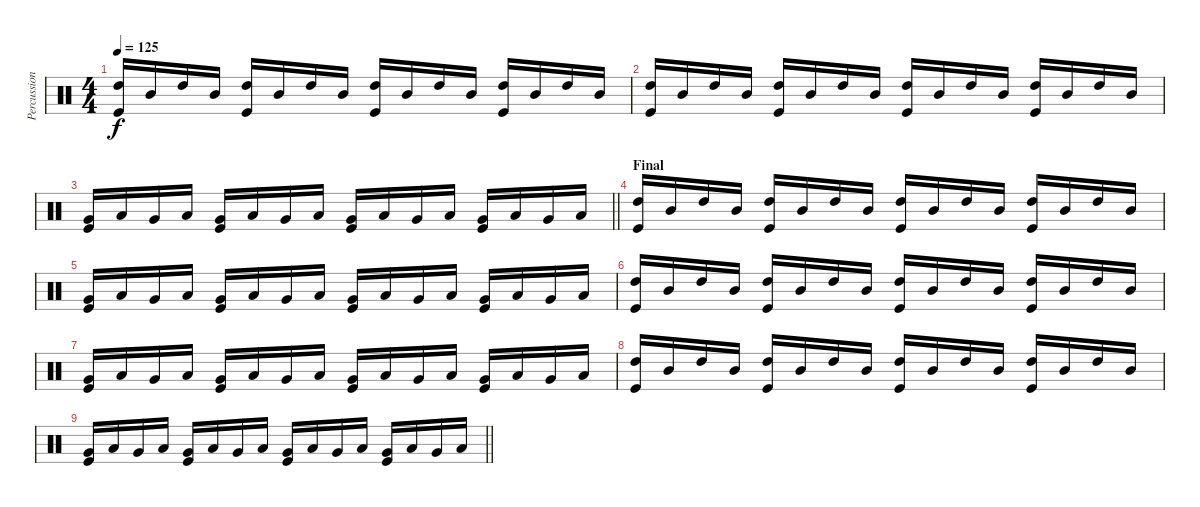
\track ("Percussions" "Percussion") {instrument percussion}
\staff {score}
\articulation defaults
\ts (4 4)
\tempo 125
\clef neutral
\ks c
("High Tom (hit)" "Kick (hit)").16{dy f} "Mid Tom (hit)".16 "High Tom (hit)".16 "Mid Tom (hit)".16 ("High Tom (hit)" "Kick (hit)").16 "Mid Tom (hit)".16 "High Tom (hit)".16 "Mid Tom (hit)".16 ("High Tom (hit)" "Kick (hit)").16 "Mid Tom (hit)".16 "High Tom (hit)".16 "Mid Tom (hit)".16 ("High Tom (hit)" "Kick (hit)").16 "Mid Tom (hit)".16 "High Tom (hit)".16 "Mid Tom (hit)".16 |
("High Tom (hit)" "Kick (hit)").16 "Mid Tom (hit)".16 "High Tom (hit)".16 "Mid Tom (hit)".16 ("High Tom (hit)" "Kick (hit)").16 "Mid Tom (hit)".16 "High Tom (hit)".16 "Mid Tom (hit)".16 ("High Tom (hit)" "Kick (hit)").16 "Mid Tom (hit)".16 "High Tom (hit)".16 "Mid Tom (hit)".16 ("High Tom (hit)" "Kick (hit)").16 "Mid Tom (hit)".16 "High Tom (hit)".16 "Mid Tom (hit)".16 |
\barLineRight lightlight
("Very Low Tom (hit)" "Kick (hit)").16 "Low Tom (hit)".16 "Very Low Tom (hit)".16 "Low Tom (hit)".16 ("Very Low Tom (hit)" "Kick (hit)").16 "Low Tom (hit)".16 "Very Low Tom (hit)".16 "Low Tom (hit)".16 ("Very Low Tom (hit)" "Kick (hit)").16 "Low Tom (hit)".16 "Very Low Tom (hit)".16 "Low Tom (hit)".16 ("Very Low Tom (hit)" "Kick (hit)").16 "Low Tom (hit)".16 "Very Low Tom (hit)".16 "Low Tom (hit)".16 |
\section ("" "Final")
("High Tom (hit)" "Kick (hit)").16 "Mid Tom (hit)".16 "High Tom (hit)".16 "Mid Tom (hit)".16 ("High Tom (hit)" "Kick (hit)").16 "Mid Tom (hit)".16 "High Tom (hit)".16 "Mid Tom (hit)".16 ("High Tom (hit)" "Kick (hit)").16 "Mid Tom (hit)".16 "High Tom (hit)".16 "Mid Tom (hit)".16 ("High Tom (hit)" "Kick (hit)").16 "Mid Tom (hit)".16 "High Tom (hit)".16 "Mid Tom (hit)".16 |
("Very Low Tom (hit)" "Kick (hit)").16 "Low Tom (hit)".16 "Very Low Tom (hit)".16 "Low Tom (hit)".16 ("Very Low Tom (hit)" "Kick (hit)").16 "Low Tom (hit)".16 "Very Low Tom (hit)".16 "Low Tom (hit)".16 ("Very Low Tom (hit)" "Kick (hit)").16 "Low Tom (hit)".16 "Very Low Tom (hit)".16 "Low Tom (hit)".16 ("Very Low Tom (hit)" "Kick (hit)").16 "Low Tom (hit)".16 "Very Low Tom (hit)".16 "Low Tom (hit)".16 |
("High Tom (hit)" "Kick (hit)").16 "Mid Tom (hit)".16 "High Tom (hit)".16 "Mid Tom (hit)".16 ("High Tom (hit)" "Kick (hit)").16 "Mid Tom (hit)".16 "High Tom (hit)".16 "Mid Tom (hit)".16 ("High Tom (hit)" "Kick (hit)").16 "Mid Tom (hit)".16 "High Tom (hit)".16 "Mid Tom (hit)".16 ("High Tom (hit)" "Kick (hit)").16 "Mid Tom (hit)".16 "High Tom (hit)".16 "Mid Tom (hit)".16 |
("Very Low Tom (hit)" "Kick (hit)").16 "Low Tom (hit)".16 "Very Low Tom (hit)".16 "Low Tom (hit)".16 ("Very Low Tom (hit)" "Kick (hit)").16 "Low Tom (hit)".16 "Very Low Tom (hit)".16 "Low Tom (hit)".16 ("Very Low Tom (hit)" "Kick (hit)").16 "Low Tom (hit)".16 "Very Low Tom (hit)".16 "Low Tom (hit)".16 ("Very Low Tom (hit)" "Kick (hit)").16 "Low Tom (hit)".16 "Very Low Tom (hit)".16 "Low Tom (hit)".16 |
("High Tom (hit)" "Kick (hit)").16 "Mid Tom (hit)".16 "High Tom (hit)".16 "Mid Tom (hit)".16 ("High Tom (hit)" "Kick (hit)").16 "Mid Tom (hit)".16 "High Tom (hit)".16 "Mid Tom (hit)".16 ("High Tom (hit)" "Kick (hit)").16 "Mid Tom (hit)".16 "High Tom (hit)".16 "Mid Tom (hit)".16 ("High Tom (hit)" "Kick (hit)").16 "Mid Tom (hit)".16 "High Tom (hit)".16 "Mid Tom (hit)".16 |
\barLineRight lightlight
("Very Low Tom (hit)" "Kick (hit)").16 "Low Tom (hit)".16 "Very Low Tom (hit)".16 "Low Tom (hit)".16 ("Very Low Tom (hit)" "Kick (hit)").16 "Low Tom (hit)".16 "Very Low Tom (hit)".16 "Low Tom (hit)".16 ("Very Low Tom (hit)" "Kick (hit)").16 "Low Tom (hit)".16 "Very Low Tom (hit)".16 "Low Tom (hit)".16 ("Very Low Tom (hit)" "Kick (hit)").16 "Low Tom (hit)".16 "Very Low Tom (hit)".16 "Low Tom (hit)".16
